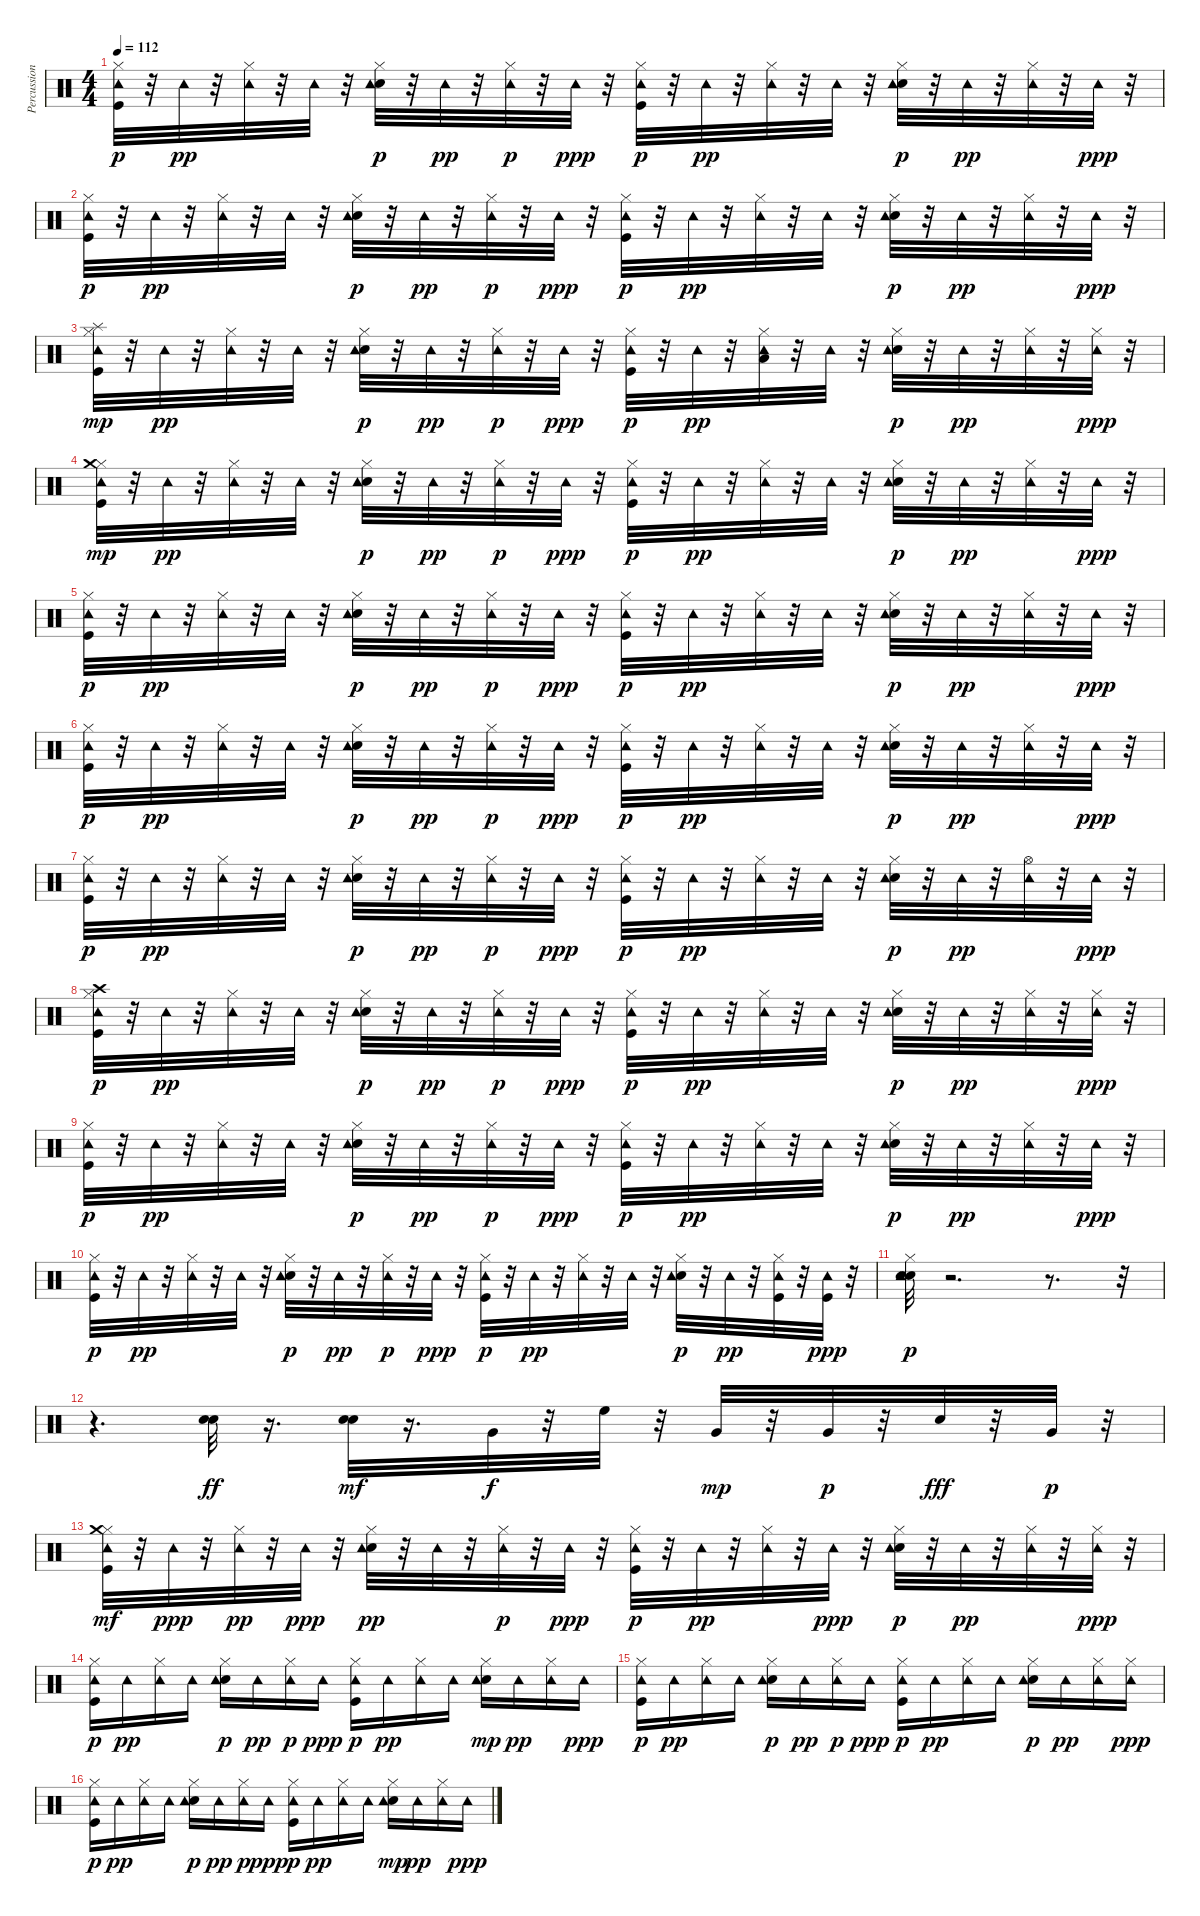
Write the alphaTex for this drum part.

\track ("Percussioni" "Percussion") {instrument percussion}
\staff {score}
\articulation defaults
\ts (4 4)
\tempo 112
\clef neutral
\ks c
("Kick (hit)" "Hi-Hat (closed)" "Tambourine (hit)").32{dy p} r.32 "Tambourine (hit)".32{dy pp} r.32 ("Hi-Hat (closed)" "Tambourine (hit)").32 r.32 "Tambourine (hit)".32 r.32 ("Electric Snare (hit)" "Hi-Hat (closed)" "Tambourine (hit)").32{dy p} r.32 "Tambourine (hit)".32{dy pp} r.32 ("Hi-Hat (closed)" "Tambourine (hit)").32{dy p} r.32 "Tambourine (hit)".32{dy ppp} r.32 ("Kick (hit)" "Hi-Hat (closed)" "Tambourine (hit)").32{dy p} r.32 "Tambourine (hit)".32{dy pp} r.32 ("Hi-Hat (closed)" "Tambourine (hit)").32 r.32 "Tambourine (hit)".32 r.32 ("Electric Snare (hit)" "Hi-Hat (closed)" "Tambourine (hit)").32{dy p} r.32 "Tambourine (hit)".32{dy pp} r.32 ("Hi-Hat (closed)" "Tambourine (hit)").32 r.32 "Tambourine (hit)".32{dy ppp} r.32 |
("Kick (hit)" "Hi-Hat (closed)" "Tambourine (hit)").32{dy p} r.32 "Tambourine (hit)".32{dy pp} r.32 ("Hi-Hat (closed)" "Tambourine (hit)").32 r.32 "Tambourine (hit)".32 r.32 ("Electric Snare (hit)" "Hi-Hat (closed)" "Tambourine (hit)").32{dy p} r.32 "Tambourine (hit)".32{dy pp} r.32 ("Hi-Hat (closed)" "Tambourine (hit)").32{dy p} r.32 "Tambourine (hit)".32{dy ppp} r.32 ("Kick (hit)" "Hi-Hat (closed)" "Tambourine (hit)").32{dy p} r.32 "Tambourine (hit)".32{dy pp} r.32 ("Hi-Hat (closed)" "Tambourine (hit)").32 r.32 "Tambourine (hit)".32 r.32 ("Electric Snare (hit)" "Hi-Hat (closed)" "Tambourine (hit)").32{dy p} r.32 "Tambourine (hit)".32{dy pp} r.32 ("Hi-Hat (closed)" "Tambourine (hit)").32 r.32 "Tambourine (hit)".32{dy ppp} r.32 |
("Kick (hit)" "Hi-Hat (closed)" "Tambourine (hit)" "Splash (hit)").32{dy mp} r.32 "Tambourine (hit)".32{dy pp} r.32 ("Hi-Hat (closed)" "Tambourine (hit)").32 r.32 "Tambourine (hit)".32 r.32 ("Electric Snare (hit)" "Hi-Hat (closed)" "Tambourine (hit)").32{dy p} r.32 "Tambourine (hit)".32{dy pp} r.32 ("Hi-Hat (closed)" "Tambourine (hit)").32{dy p} r.32 "Tambourine (hit)".32{dy ppp} r.32 ("Kick (hit)" "Hi-Hat (closed)" "Tambourine (hit)").32{dy p} r.32 "Tambourine (hit)".32{dy pp} r.32 ("Hi-Hat (closed)" "Low Tom (hit)" "Tambourine (hit)").32 r.32 "Tambourine (hit)".32 r.32 ("Electric Snare (hit)" "Hi-Hat (closed)" "Tambourine (hit)").32{dy p} r.32 "Tambourine (hit)".32{dy pp} r.32 ("Hi-Hat (closed)" "Tambourine (hit)").32 r.32 ("Hi-Hat (closed)" "Tambourine (hit)").32{dy ppp} r.32 |
("Kick (hit)" "Hi-Hat (closed)" "Tambourine (hit)" "Crash medium (hit)").32{dy mp} r.32 "Tambourine (hit)".32{dy pp} r.32 ("Hi-Hat (closed)" "Tambourine (hit)").32 r.32 "Tambourine (hit)".32 r.32 ("Electric Snare (hit)" "Hi-Hat (closed)" "Tambourine (hit)").32{dy p} r.32 "Tambourine (hit)".32{dy pp} r.32 ("Hi-Hat (closed)" "Tambourine (hit)").32{dy p} r.32 "Tambourine (hit)".32{dy ppp} r.32 ("Kick (hit)" "Hi-Hat (closed)" "Tambourine (hit)").32{dy p} r.32 "Tambourine (hit)".32{dy pp} r.32 ("Hi-Hat (closed)" "Tambourine (hit)").32 r.32 "Tambourine (hit)".32 r.32 ("Electric Snare (hit)" "Hi-Hat (closed)" "Tambourine (hit)").32{dy p} r.32 "Tambourine (hit)".32{dy pp} r.32 ("Hi-Hat (closed)" "Tambourine (hit)").32 r.32 "Tambourine (hit)".32{dy ppp} r.32 |
("Kick (hit)" "Hi-Hat (closed)" "Tambourine (hit)").32{dy p} r.32 "Tambourine (hit)".32{dy pp} r.32 ("Hi-Hat (closed)" "Tambourine (hit)").32 r.32 "Tambourine (hit)".32 r.32 ("Electric Snare (hit)" "Hi-Hat (closed)" "Tambourine (hit)").32{dy p} r.32 "Tambourine (hit)".32{dy pp} r.32 ("Hi-Hat (closed)" "Tambourine (hit)").32{dy p} r.32 "Tambourine (hit)".32{dy ppp} r.32 ("Kick (hit)" "Hi-Hat (closed)" "Tambourine (hit)").32{dy p} r.32 "Tambourine (hit)".32{dy pp} r.32 ("Hi-Hat (closed)" "Tambourine (hit)").32 r.32 "Tambourine (hit)".32 r.32 ("Electric Snare (hit)" "Hi-Hat (closed)" "Tambourine (hit)").32{dy p} r.32 "Tambourine (hit)".32{dy pp} r.32 ("Hi-Hat (closed)" "Tambourine (hit)").32 r.32 "Tambourine (hit)".32{dy ppp} r.32 |
("Kick (hit)" "Hi-Hat (closed)" "Tambourine (hit)").32{dy p} r.32 "Tambourine (hit)".32{dy pp} r.32 ("Hi-Hat (closed)" "Tambourine (hit)").32 r.32 "Tambourine (hit)".32 r.32 ("Electric Snare (hit)" "Hi-Hat (closed)" "Tambourine (hit)").32{dy p} r.32 "Tambourine (hit)".32{dy pp} r.32 ("Hi-Hat (closed)" "Tambourine (hit)").32{dy p} r.32 "Tambourine (hit)".32{dy ppp} r.32 ("Kick (hit)" "Hi-Hat (closed)" "Tambourine (hit)").32{dy p} r.32 "Tambourine (hit)".32{dy pp} r.32 ("Hi-Hat (closed)" "Tambourine (hit)").32 r.32 "Tambourine (hit)".32 r.32 ("Electric Snare (hit)" "Hi-Hat (closed)" "Tambourine (hit)").32{dy p} r.32 "Tambourine (hit)".32{dy pp} r.32 ("Hi-Hat (closed)" "Tambourine (hit)").32 r.32 "Tambourine (hit)".32{dy ppp} r.32 |
("Kick (hit)" "Hi-Hat (closed)" "Tambourine (hit)").32{dy p} r.32 "Tambourine (hit)".32{dy pp} r.32 ("Hi-Hat (closed)" "Tambourine (hit)").32 r.32 "Tambourine (hit)".32 r.32 ("Electric Snare (hit)" "Hi-Hat (closed)" "Tambourine (hit)").32{dy p} r.32 "Tambourine (hit)".32{dy pp} r.32 ("Hi-Hat (closed)" "Tambourine (hit)").32{dy p} r.32 "Tambourine (hit)".32{dy ppp} r.32 ("Kick (hit)" "Hi-Hat (closed)" "Tambourine (hit)").32{dy p} r.32 "Tambourine (hit)".32{dy pp} r.32 ("Hi-Hat (closed)" "Tambourine (hit)").32 r.32 "Tambourine (hit)".32 r.32 ("Electric Snare (hit)" "Hi-Hat (closed)" "Tambourine (hit)").32{dy p} r.32 "Tambourine (hit)".32{dy pp} r.32 ("Hi-Hat (open)" "Tambourine (hit)").32 r.32 "Tambourine (hit)".32{dy ppp} r.32 |
("Kick (hit)" "Hi-Hat (closed)" "Crash high (hit)" "Tambourine (hit)").32{dy p} r.32 "Tambourine (hit)".32{dy pp} r.32 ("Hi-Hat (closed)" "Tambourine (hit)").32 r.32 "Tambourine (hit)".32 r.32 ("Electric Snare (hit)" "Hi-Hat (closed)" "Tambourine (hit)").32{dy p} r.32 "Tambourine (hit)".32{dy pp} r.32 ("Hi-Hat (closed)" "Tambourine (hit)").32{dy p} r.32 "Tambourine (hit)".32{dy ppp} r.32 ("Kick (hit)" "Hi-Hat (closed)" "Tambourine (hit)").32{dy p} r.32 "Tambourine (hit)".32{dy pp} r.32 ("Hi-Hat (closed)" "Tambourine (hit)").32 r.32 "Tambourine (hit)".32 r.32 ("Electric Snare (hit)" "Hi-Hat (closed)" "Tambourine (hit)").32{dy p} r.32 "Tambourine (hit)".32{dy pp} r.32 ("Hi-Hat (closed)" "Tambourine (hit)").32 r.32 ("Hi-Hat (closed)" "Tambourine (hit)").32{dy ppp} r.32 |
("Kick (hit)" "Hi-Hat (closed)" "Tambourine (hit)").32{dy p} r.32 "Tambourine (hit)".32{dy pp} r.32 ("Hi-Hat (closed)" "Tambourine (hit)").32 r.32 "Tambourine (hit)".32 r.32 ("Electric Snare (hit)" "Hi-Hat (closed)" "Tambourine (hit)").32{dy p} r.32 "Tambourine (hit)".32{dy pp} r.32 ("Hi-Hat (closed)" "Tambourine (hit)").32{dy p} r.32 "Tambourine (hit)".32{dy ppp} r.32 ("Kick (hit)" "Hi-Hat (closed)" "Tambourine (hit)").32{dy p} r.32 "Tambourine (hit)".32{dy pp} r.32 ("Hi-Hat (closed)" "Tambourine (hit)").32 r.32 "Tambourine (hit)".32 r.32 ("Electric Snare (hit)" "Hi-Hat (closed)" "Tambourine (hit)").32{dy p} r.32 "Tambourine (hit)".32{dy pp} r.32 ("Hi-Hat (closed)" "Tambourine (hit)").32 r.32 "Tambourine (hit)".32{dy ppp} r.32 |
("Kick (hit)" "Hi-Hat (closed)" "Tambourine (hit)").32{dy p} r.32 "Tambourine (hit)".32{dy pp} r.32 ("Hi-Hat (closed)" "Tambourine (hit)").32 r.32 "Tambourine (hit)".32 r.32 ("Electric Snare (hit)" "Hi-Hat (closed)" "Tambourine (hit)").32{dy p} r.32 "Tambourine (hit)".32{dy pp} r.32 ("Hi-Hat (closed)" "Tambourine (hit)").32{dy p} r.32 "Tambourine (hit)".32{dy ppp} r.32 ("Kick (hit)" "Hi-Hat (closed)" "Tambourine (hit)").32{dy p} r.32 "Tambourine (hit)".32{dy pp} r.32 ("Hi-Hat (closed)" "Tambourine (hit)").32 r.32 "Tambourine (hit)".32 r.32 ("Electric Snare (hit)" "Hi-Hat (closed)" "Tambourine (hit)").32{dy p} r.32 "Tambourine (hit)".32{dy pp} r.32 ("Kick (hit)" "Hi-Hat (closed)" "Tambourine (hit)").32 r.32 ("Kick (hit)" "Tambourine (hit)").32{dy ppp} r.32 |
("Electric Snare (hit)" "Electric Snare (hit)" "Hi-Hat (closed)" "Tambourine (hit)").32{dy p} r.2{d} r.8{d} r.32 |
r.4{d} ("Electric Snare (hit)" "Electric Snare (hit)").32{dy ff} r.16{d} ("Electric Snare (hit)" "Electric Snare (hit)").32{dy mf} r.16{d} "Very Low Tom (hit)".32{dy f} r.32 "High Floor Tom (hit)".32 r.32 "Very Low Tom (hit)".32{dy mp} r.32 "Very Low Tom (hit)".32{dy p} r.32 "Electric Snare (hit)".32{dy fff} r.32 "Very Low Tom (hit)".32{dy p} r.32 |
("Kick (hit)" "Hi-Hat (closed)" "Tambourine (hit)" "Crash medium (hit)").32{dy mf} r.32 "Tambourine (hit)".32{dy ppp} r.32 ("Hi-Hat (closed)" "Tambourine (hit)").32{dy pp} r.32 "Tambourine (hit)".32{dy ppp} r.32 ("Electric Snare (hit)" "Hi-Hat (closed)" "Tambourine (hit)").32{dy pp} r.32 "Tambourine (hit)".32 r.32 ("Hi-Hat (closed)" "Tambourine (hit)").32{dy p} r.32 "Tambourine (hit)".32{dy ppp} r.32 ("Kick (hit)" "Hi-Hat (closed)" "Tambourine (hit)").32{dy p} r.32 "Tambourine (hit)".32{dy pp} r.32 ("Hi-Hat (closed)" "Tambourine (hit)").32 r.32 "Tambourine (hit)".32{dy ppp} r.32 ("Electric Snare (hit)" "Hi-Hat (closed)" "Tambourine (hit)").32{dy p} r.32 "Tambourine (hit)".32{dy pp} r.32 ("Hi-Hat (closed)" "Tambourine (hit)").32 r.32 ("Hi-Hat (closed)" "Tambourine (hit)").32{dy ppp} r.32 |
("Kick (hit)" "Hi-Hat (closed)" "Tambourine (hit)").16{dy p} "Tambourine (hit)".16{dy pp} ("Hi-Hat (closed)" "Tambourine (hit)").16 "Tambourine (hit)".16 ("Electric Snare (hit)" "Hi-Hat (closed)" "Tambourine (hit)").16{dy p} "Tambourine (hit)".16{dy pp} ("Hi-Hat (closed)" "Tambourine (hit)").16{dy p} "Tambourine (hit)".16{dy ppp} ("Kick (hit)" "Hi-Hat (closed)" "Tambourine (hit)").16{dy p} "Tambourine (hit)".16{dy pp} ("Hi-Hat (closed)" "Tambourine (hit)").16 "Tambourine (hit)".16 ("Electric Snare (hit)" "Hi-Hat (closed)" "Tambourine (hit)").16{dy mp} "Tambourine (hit)".16{dy pp} ("Hi-Hat (closed)" "Tambourine (hit)").16 "Tambourine (hit)".16{dy ppp} |
("Kick (hit)" "Hi-Hat (closed)" "Tambourine (hit)").16{dy p} "Tambourine (hit)".16{dy pp} ("Hi-Hat (closed)" "Tambourine (hit)").16 "Tambourine (hit)".16 ("Electric Snare (hit)" "Hi-Hat (closed)" "Tambourine (hit)").16{dy p} "Tambourine (hit)".16{dy pp} ("Hi-Hat (closed)" "Tambourine (hit)").16{dy p} "Tambourine (hit)".16{dy ppp} ("Kick (hit)" "Hi-Hat (closed)" "Tambourine (hit)").16{dy p} "Tambourine (hit)".16{dy pp} ("Hi-Hat (closed)" "Tambourine (hit)").16 "Tambourine (hit)".16 ("Electric Snare (hit)" "Hi-Hat (closed)" "Tambourine (hit)").16{dy p} "Tambourine (hit)".16{dy pp} ("Hi-Hat (closed)" "Tambourine (hit)").16 ("Hi-Hat (closed)" "Tambourine (hit)").16{dy ppp} |
("Kick (hit)" "Hi-Hat (closed)" "Tambourine (hit)").16{dy p} "Tambourine (hit)".16{dy pp} ("Hi-Hat (closed)" "Tambourine (hit)").16 "Tambourine (hit)".16 ("Electric Snare (hit)" "Hi-Hat (closed)" "Tambourine (hit)").16{dy p} "Tambourine (hit)".16{dy pp} ("Hi-Hat (closed)" "Tambourine (hit)").16{dy p} "Tambourine (hit)".16{dy ppp} ("Kick (hit)" "Hi-Hat (closed)" "Tambourine (hit)").16{dy p} "Tambourine (hit)".16{dy pp} ("Hi-Hat (closed)" "Tambourine (hit)").16 "Tambourine (hit)".16 ("Electric Snare (hit)" "Hi-Hat (closed)" "Tambourine (hit)").16{dy mp} "Tambourine (hit)".16{dy pp} ("Hi-Hat (closed)" "Tambourine (hit)").16 "Tambourine (hit)".16{dy ppp}
